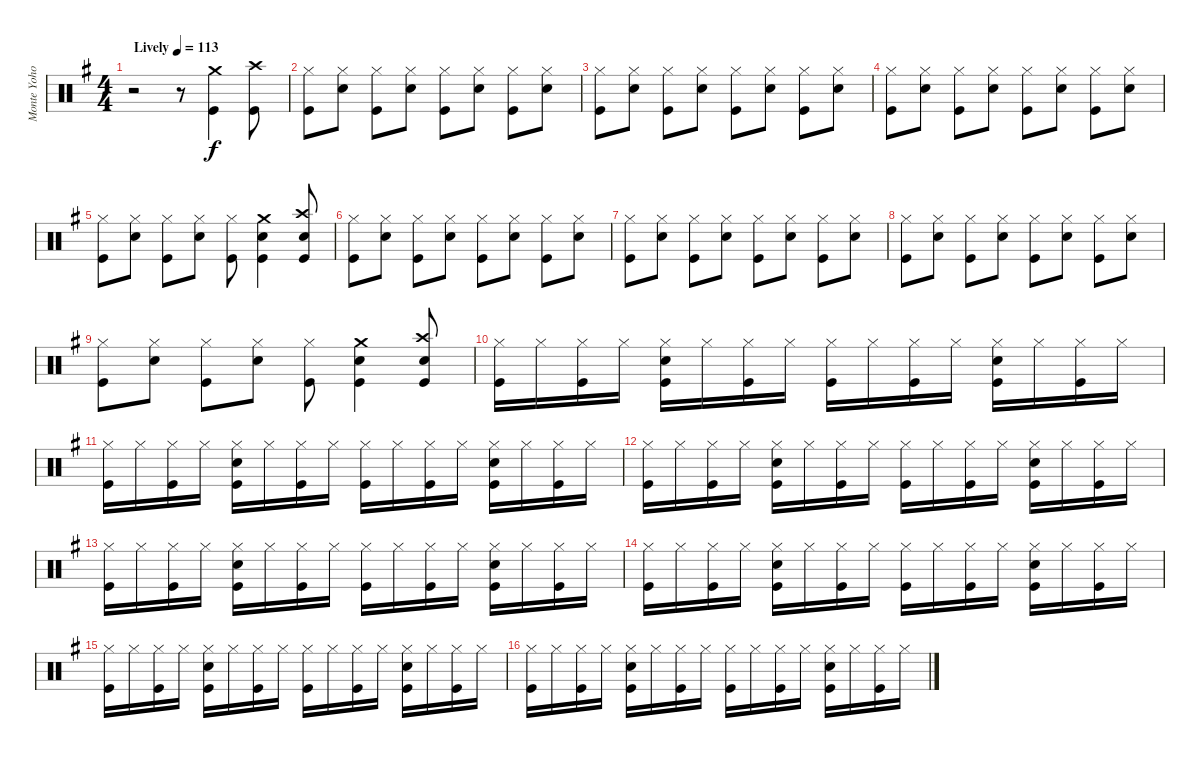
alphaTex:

\track ("Monte Yoho Drums" "Monte Yoho") {instrument percussion}
\staff {score}
\articulation defaults
\ts (4 4)
\tempo (113 "Lively")
\clef neutral
\ks eminor
r.2{dy f} r.8 ("Crash medium (hit)" "Kick (hit)").4 ("Crash high (hit)" "Kick (hit)").8 |
("Hi-Hat (closed)" "Kick (hit)").8 ("Hi-Hat (closed)" "Snare (hit) 2").8 ("Hi-Hat (closed)" "Kick (hit)").8 ("Hi-Hat (closed)" "Snare (hit) 2").8 ("Hi-Hat (closed)" "Kick (hit)").8 ("Hi-Hat (closed)" "Snare (hit) 2").8 ("Hi-Hat (closed)" "Kick (hit)").8 ("Hi-Hat (closed)" "Snare (hit) 2").8 |
("Hi-Hat (closed)" "Kick (hit)").8 ("Hi-Hat (closed)" "Snare (hit) 2").8 ("Hi-Hat (closed)" "Kick (hit)").8 ("Hi-Hat (closed)" "Snare (hit) 2").8 ("Hi-Hat (closed)" "Kick (hit)").8 ("Hi-Hat (closed)" "Snare (hit) 2").8 ("Hi-Hat (closed)" "Kick (hit)").8 ("Hi-Hat (closed)" "Snare (hit) 2").8 |
("Hi-Hat (closed)" "Kick (hit)").8 ("Hi-Hat (closed)" "Snare (hit) 2").8 ("Hi-Hat (closed)" "Kick (hit)").8 ("Hi-Hat (closed)" "Snare (hit) 2").8 ("Hi-Hat (closed)" "Kick (hit)").8 ("Hi-Hat (closed)" "Snare (hit) 2").8 ("Hi-Hat (closed)" "Kick (hit)").8 ("Hi-Hat (closed)" "Snare (hit) 2").8 |
("Hi-Hat (closed)" "Kick (hit)").8 ("Hi-Hat (closed)" "Snare (hit) 2").8 ("Hi-Hat (closed)" "Kick (hit)").8 ("Hi-Hat (closed)" "Snare (hit) 2").8 ("Hi-Hat (closed)" "Kick (hit)").8 ("Crash medium (hit)" "Snare (hit) 2" "Kick (hit)").4 ("Crash high (hit)" "Snare (hit) 2" "Kick (hit)").8 |
("Hi-Hat (closed)" "Kick (hit)").8 ("Hi-Hat (closed)" "Snare (hit) 2").8 ("Hi-Hat (closed)" "Kick (hit)").8 ("Hi-Hat (closed)" "Snare (hit) 2").8 ("Hi-Hat (closed)" "Kick (hit)").8 ("Hi-Hat (closed)" "Snare (hit) 2").8 ("Hi-Hat (closed)" "Kick (hit)").8 ("Hi-Hat (closed)" "Snare (hit) 2").8 |
("Hi-Hat (closed)" "Kick (hit)").8 ("Hi-Hat (closed)" "Snare (hit) 2").8 ("Hi-Hat (closed)" "Kick (hit)").8 ("Hi-Hat (closed)" "Snare (hit) 2").8 ("Hi-Hat (closed)" "Kick (hit)").8 ("Hi-Hat (closed)" "Snare (hit) 2").8 ("Hi-Hat (closed)" "Kick (hit)").8 ("Hi-Hat (closed)" "Snare (hit) 2").8 |
("Hi-Hat (closed)" "Kick (hit)").8 ("Hi-Hat (closed)" "Snare (hit) 2").8 ("Hi-Hat (closed)" "Kick (hit)").8 ("Hi-Hat (closed)" "Snare (hit) 2").8 ("Hi-Hat (closed)" "Kick (hit)").8 ("Hi-Hat (closed)" "Snare (hit) 2").8 ("Hi-Hat (closed)" "Kick (hit)").8 ("Hi-Hat (closed)" "Snare (hit) 2").8 |
("Hi-Hat (closed)" "Kick (hit)").8 ("Hi-Hat (closed)" "Snare (hit) 2").8 ("Hi-Hat (closed)" "Kick (hit)").8 ("Hi-Hat (closed)" "Snare (hit) 2").8 ("Hi-Hat (closed)" "Kick (hit)").8 ("Crash medium (hit)" "Snare (hit) 2" "Kick (hit)").4 ("Crash high (hit)" "Snare (hit) 2" "Kick (hit)").8 |
("Hi-Hat (closed)" "Kick (hit)").16 "Hi-Hat (closed)".16 ("Hi-Hat (closed)" "Kick (hit)").16 "Hi-Hat (closed)".16 ("Hi-Hat (closed)" "Snare (hit) 2" "Kick (hit)").16 "Hi-Hat (closed)".16 ("Hi-Hat (closed)" "Kick (hit)").16 "Hi-Hat (closed)".16 ("Hi-Hat (closed)" "Kick (hit)").16 "Hi-Hat (closed)".16 ("Hi-Hat (closed)" "Kick (hit)").16 "Hi-Hat (closed)".16 ("Hi-Hat (closed)" "Snare (hit) 2" "Kick (hit)").16 "Hi-Hat (closed)".16 ("Hi-Hat (closed)" "Kick (hit)").16 "Hi-Hat (closed)".16 |
("Hi-Hat (closed)" "Kick (hit)").16 "Hi-Hat (closed)".16 ("Hi-Hat (closed)" "Kick (hit)").16 "Hi-Hat (closed)".16 ("Hi-Hat (closed)" "Snare (hit) 2" "Kick (hit)").16 "Hi-Hat (closed)".16 ("Hi-Hat (closed)" "Kick (hit)").16 "Hi-Hat (closed)".16 ("Hi-Hat (closed)" "Kick (hit)").16 "Hi-Hat (closed)".16 ("Hi-Hat (closed)" "Kick (hit)").16 "Hi-Hat (closed)".16 ("Hi-Hat (closed)" "Snare (hit) 2" "Kick (hit)").16 "Hi-Hat (closed)".16 ("Hi-Hat (closed)" "Kick (hit)").16 "Hi-Hat (closed)".16 |
("Hi-Hat (closed)" "Kick (hit)").16 "Hi-Hat (closed)".16 ("Hi-Hat (closed)" "Kick (hit)").16 "Hi-Hat (closed)".16 ("Hi-Hat (closed)" "Snare (hit) 2" "Kick (hit)").16 "Hi-Hat (closed)".16 ("Hi-Hat (closed)" "Kick (hit)").16 "Hi-Hat (closed)".16 ("Hi-Hat (closed)" "Kick (hit)").16 "Hi-Hat (closed)".16 ("Hi-Hat (closed)" "Kick (hit)").16 "Hi-Hat (closed)".16 ("Hi-Hat (closed)" "Snare (hit) 2" "Kick (hit)").16 "Hi-Hat (closed)".16 ("Hi-Hat (closed)" "Kick (hit)").16 "Hi-Hat (closed)".16 |
("Hi-Hat (closed)" "Kick (hit)").16 "Hi-Hat (closed)".16 ("Hi-Hat (closed)" "Kick (hit)").16 "Hi-Hat (closed)".16 ("Hi-Hat (closed)" "Snare (hit) 2" "Kick (hit)").16 "Hi-Hat (closed)".16 ("Hi-Hat (closed)" "Kick (hit)").16 "Hi-Hat (closed)".16 ("Hi-Hat (closed)" "Kick (hit)").16 "Hi-Hat (closed)".16 ("Hi-Hat (closed)" "Kick (hit)").16 "Hi-Hat (closed)".16 ("Hi-Hat (closed)" "Snare (hit) 2" "Kick (hit)").16 "Hi-Hat (closed)".16 ("Hi-Hat (closed)" "Kick (hit)").16 "Hi-Hat (closed)".16 |
("Hi-Hat (closed)" "Kick (hit)").16 "Hi-Hat (closed)".16 ("Hi-Hat (closed)" "Kick (hit)").16 "Hi-Hat (closed)".16 ("Hi-Hat (closed)" "Snare (hit) 2" "Kick (hit)").16 "Hi-Hat (closed)".16 ("Hi-Hat (closed)" "Kick (hit)").16 "Hi-Hat (closed)".16 ("Hi-Hat (closed)" "Kick (hit)").16 "Hi-Hat (closed)".16 ("Hi-Hat (closed)" "Kick (hit)").16 "Hi-Hat (closed)".16 ("Hi-Hat (closed)" "Snare (hit) 2" "Kick (hit)").16 "Hi-Hat (closed)".16 ("Hi-Hat (closed)" "Kick (hit)").16 "Hi-Hat (closed)".16 |
("Hi-Hat (closed)" "Kick (hit)").16 "Hi-Hat (closed)".16 ("Hi-Hat (closed)" "Kick (hit)").16 "Hi-Hat (closed)".16 ("Hi-Hat (closed)" "Snare (hit) 2" "Kick (hit)").16 "Hi-Hat (closed)".16 ("Hi-Hat (closed)" "Kick (hit)").16 "Hi-Hat (closed)".16 ("Hi-Hat (closed)" "Kick (hit)").16 "Hi-Hat (closed)".16 ("Hi-Hat (closed)" "Kick (hit)").16 "Hi-Hat (closed)".16 ("Hi-Hat (closed)" "Snare (hit) 2" "Kick (hit)").16 "Hi-Hat (closed)".16 ("Hi-Hat (closed)" "Kick (hit)").16 "Hi-Hat (closed)".16 |
("Hi-Hat (closed)" "Kick (hit)").16 "Hi-Hat (closed)".16 ("Hi-Hat (closed)" "Kick (hit)").16 "Hi-Hat (closed)".16 ("Hi-Hat (closed)" "Snare (hit) 2" "Kick (hit)").16 "Hi-Hat (closed)".16 ("Hi-Hat (closed)" "Kick (hit)").16 "Hi-Hat (closed)".16 ("Hi-Hat (closed)" "Kick (hit)").16 "Hi-Hat (closed)".16 ("Hi-Hat (closed)" "Kick (hit)").16 "Hi-Hat (closed)".16 ("Hi-Hat (closed)" "Snare (hit) 2" "Kick (hit)").16 "Hi-Hat (closed)".16 ("Hi-Hat (closed)" "Kick (hit)").16 "Hi-Hat (closed)".16
